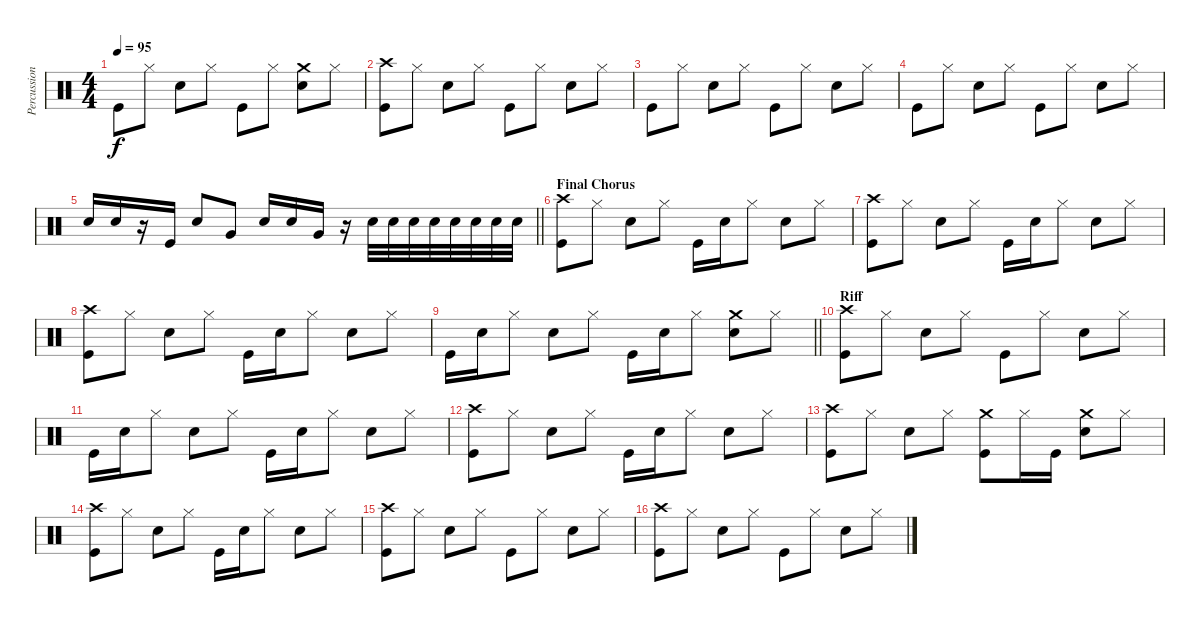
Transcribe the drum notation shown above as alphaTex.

\track ("Percussion" "Percussion") {instrument percussion}
\staff {score}
\articulation defaults
\ts (4 4)
\tempo 95
\clef neutral
\ks c "Kick (hit)".8{dy f} "Hi-Hat (closed)".8 "Snare (hit) 2".8 "Hi-Hat (closed)".8 "Kick (hit)".8 "Hi-Hat (closed)".8
("Crash medium (hit)" "Snare (hit) 2").8 "Hi-Hat (closed)".8 |
("Kick (hit)" "Crash high (hit)").8 "Hi-Hat (closed)".8 "Snare (hit) 2".8 "Hi-Hat (closed)".8 "Kick (hit)".8 "Hi-Hat (closed)".8 "Snare (hit) 2".8 "Hi-Hat (closed)".8 |
"Kick (hit)".8 "Hi-Hat (closed)".8 "Snare (hit) 2".8 "Hi-Hat (closed)".8 "Kick (hit)".8 "Hi-Hat (closed)".8 "Snare (hit) 2".8 "Hi-Hat (closed)".8 |
"Kick (hit)".8 "Hi-Hat (closed)".8 "Snare (hit) 2".8 "Hi-Hat (closed)".8 "Kick (hit)".8 "Hi-Hat (closed)".8 "Snare (hit) 2".8 "Hi-Hat (closed)".8 |
\barLineRight lightlight "Snare (hit) 2".16 "Snare (hit) 2".16
r.16 "Kick (hit)".16 "Snare (hit) 2".8 "Very Low Tom (hit)".8 "Snare (hit) 2".16 "Snare (hit) 2".16 "Very Low Tom (hit)".16 r.16 "Snare (hit) 2".32 "Snare (hit) 2".32 "Snare (hit) 2".32 "Snare (hit) 2".32 "Snare (hit) 2".32 "Snare (hit) 2".32 "Snare (hit) 2".32 "Snare (hit) 2".32 |
\section ("" "Final Chorus")
("Kick (hit)" "Crash high (hit)").8 "Hi-Hat (closed)".8 "Snare (hit) 2".8 "Hi-Hat (closed)".8 "Kick (hit)".16 "Snare (hit) 2".16 "Hi-Hat (closed)".8 "Snare (hit) 2".8 "Hi-Hat (closed)".8 |
("Kick (hit)" "Crash high (hit)").8 "Hi-Hat (closed)".8 "Snare (hit) 2".8 "Hi-Hat (closed)".8 "Kick (hit)".16 "Snare (hit) 2".16 "Hi-Hat (closed)".8 "Snare (hit) 2".8 "Hi-Hat (closed)".8 |
("Kick (hit)" "Crash high (hit)").8 "Hi-Hat (closed)".8 "Snare (hit) 2".8 "Hi-Hat (closed)".8 "Kick (hit)".16 "Snare (hit) 2".16 "Hi-Hat (closed)".8 "Snare (hit) 2".8 "Hi-Hat (closed)".8 |
\barLineRight lightlight "Kick (hit)".16 "Snare (hit) 2".16 "Hi-Hat (closed)".8 "Snare (hit) 2".8 "Hi-Hat (closed)".8 "Kick (hit)".16 "Snare (hit) 2".16 "Hi-Hat (closed)".8
("Crash medium (hit)" "Snare (hit) 2").8 "Hi-Hat (closed)".8 |
\section ("" "Riff")
("Kick (hit)" "Crash high (hit)").8 "Hi-Hat (closed)".8 "Snare (hit) 2".8 "Hi-Hat (closed)".8 "Kick (hit)".8 "Hi-Hat (closed)".8 "Snare (hit) 2".8 "Hi-Hat (closed)".8 |
"Kick (hit)".16 "Snare (hit) 2".16 "Hi-Hat (closed)".8 "Snare (hit) 2".8 "Hi-Hat (closed)".8 "Kick (hit)".16 "Snare (hit) 2".16 "Hi-Hat (closed)".8 "Snare (hit) 2".8 "Hi-Hat (closed)".8 |
("Kick (hit)" "Crash high (hit)").8 "Hi-Hat (closed)".8 "Snare (hit) 2".8 "Hi-Hat (closed)".8 "Kick (hit)".16 "Snare (hit) 2".16 "Hi-Hat (closed)".8 "Snare (hit) 2".8 "Hi-Hat (closed)".8 |
("Kick (hit)" "Crash high (hit)").8 "Hi-Hat (closed)".8 "Snare (hit) 2".8 "Hi-Hat (closed)".8 ("Kick (hit)" "Crash medium (hit)").8 "Hi-Hat (closed)".16 "Kick (hit)".16 ("Crash medium (hit)" "Snare (hit) 2").8 "Hi-Hat (closed)".8 |
("Kick (hit)" "Crash high (hit)").8 "Hi-Hat (closed)".8 "Snare (hit) 2".8 "Hi-Hat (closed)".8 "Kick (hit)".16 "Snare (hit) 2".16 "Hi-Hat (closed)".8 "Snare (hit) 2".8 "Hi-Hat (closed)".8 |
("Kick (hit)" "Crash high (hit)").8 "Hi-Hat (closed)".8 "Snare (hit) 2".8 "Hi-Hat (closed)".8 "Kick (hit)".8 "Hi-Hat (closed)".8 "Snare (hit) 2".8 "Hi-Hat (closed)".8 |
("Kick (hit)" "Crash high (hit)").8 "Hi-Hat (closed)".8 "Snare (hit) 2".8 "Hi-Hat (closed)".8 "Kick (hit)".8 "Hi-Hat (closed)".8 "Snare (hit) 2".8 "Hi-Hat (closed)".8
